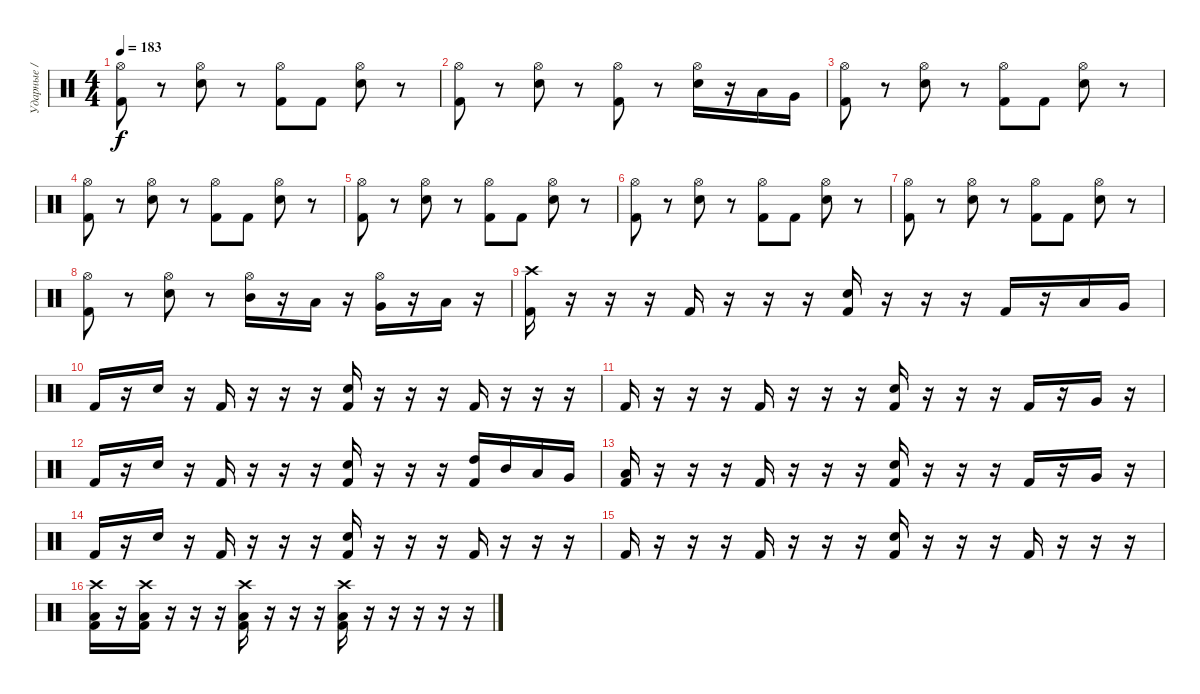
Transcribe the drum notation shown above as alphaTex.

\track ("Ударные / Drums" "Ударные / ") {instrument percussion}
\staff {score}
\articulation defaults
\ts (4 4)
\tempo 183
\clef neutral
\ks c
("Hi-Hat (open)" "Kick (hit) 2").8{dy f} r.8 ("Hi-Hat (open)" "Snare (hit) 2").8 r.8 ("Hi-Hat (open)" "Kick (hit) 2").8 "Kick (hit) 2".8 ("Hi-Hat (open)" "Snare (hit) 2").8 r.8 |
("Hi-Hat (open)" "Kick (hit) 2").8 r.8 ("Hi-Hat (open)" "Snare (hit) 2").8 r.8 ("Hi-Hat (open)" "Kick (hit) 2").8 r.8 ("Hi-Hat (open)" "Snare (hit) 2").16 r.16 "Low Tom (hit)".16 "Very Low Tom (hit)".16 |
("Hi-Hat (open)" "Kick (hit) 2").8 r.8 ("Hi-Hat (open)" "Snare (hit) 2").8 r.8 ("Hi-Hat (open)" "Kick (hit) 2").8 "Kick (hit) 2".8 ("Hi-Hat (open)" "Snare (hit) 2").8 r.8 |
("Hi-Hat (open)" "Kick (hit) 2").8 r.8 ("Hi-Hat (open)" "Snare (hit) 2").8 r.8 ("Hi-Hat (open)" "Kick (hit) 2").8 "Kick (hit) 2".8 ("Hi-Hat (open)" "Snare (hit) 2").8 r.8 |
("Hi-Hat (open)" "Kick (hit) 2").8 r.8 ("Hi-Hat (open)" "Snare (hit) 2").8 r.8 ("Hi-Hat (open)" "Kick (hit) 2").8 "Kick (hit) 2".8 ("Hi-Hat (open)" "Snare (hit) 2").8 r.8 |
("Hi-Hat (open)" "Kick (hit) 2").8 r.8 ("Hi-Hat (open)" "Snare (hit) 2").8 r.8 ("Hi-Hat (open)" "Kick (hit) 2").8 "Kick (hit) 2".8 ("Hi-Hat (open)" "Snare (hit) 2").8 r.8 |
("Hi-Hat (open)" "Kick (hit) 2").8 r.8 ("Hi-Hat (open)" "Snare (hit) 2").8 r.8 ("Hi-Hat (open)" "Kick (hit) 2").8 "Kick (hit) 2".8 ("Hi-Hat (open)" "Snare (hit) 2").8 r.8 |
("Hi-Hat (open)" "Kick (hit) 2").8 r.8 ("Hi-Hat (open)" "Snare (hit) 2").8 r.8 ("Hi-Hat (open)" "Mid Tom (hit)").16 r.16 "Low Tom (hit)".16 r.16 ("Hi-Hat (open)" "Very Low Tom (hit)").16 r.16 "Low Floor Tom (hit)".16 r.16 |
("Crash high (hit)" "Kick (hit) 2").16 r.16 r.16 r.16 "Kick (hit) 2".16 r.16 r.16 r.16 ("Snare (hit) 2" "Kick (hit) 2").16 r.16 r.16 r.16 "Kick (hit) 2".16 r.16 "Low Tom (hit)".16 "Very Low Tom (hit)".16 |
"Kick (hit) 2".16 r.16 "Snare (hit) 2".16 r.16 "Kick (hit) 2".16 r.16 r.16 r.16 ("Snare (hit) 2" "Kick (hit) 2").16 r.16 r.16 r.16 "Kick (hit) 2".16 r.16 r.16 r.16 |
"Kick (hit) 2".16 r.16 r.16 r.16 "Kick (hit) 2".16 r.16 r.16 r.16 ("Snare (hit) 2" "Kick (hit) 2").16 r.16 r.16 r.16 "Kick (hit) 2".16 r.16 "Very Low Tom (hit)".16 r.16 |
"Kick (hit) 2".16 r.16 "Snare (hit) 2".16 r.16 "Kick (hit) 2".16 r.16 r.16 r.16 ("Snare (hit) 2" "Kick (hit) 2").16 r.16 r.16 r.16 ("High Tom (hit)" "Kick (hit) 2").16 "Mid Tom (hit)".16 "Low Tom (hit)".16 "Very Low Tom (hit)".16 |
("Low Floor Tom (hit)" "Kick (hit) 2").16 r.16 r.16 r.16 "Kick (hit) 2".16 r.16 r.16 r.16 ("Snare (hit) 2" "Kick (hit) 2").16 r.16 r.16 r.16 "Kick (hit) 2".16 r.16 "Very Low Tom (hit)".16 r.16 |
"Kick (hit) 2".16 r.16 "Snare (hit) 2".16 r.16 "Kick (hit) 2".16 r.16 r.16 r.16 ("Snare (hit) 2" "Kick (hit) 2").16 r.16 r.16 r.16 "Kick (hit) 2".16 r.16 r.16 r.16 |
"Kick (hit) 2".16 r.16 r.16 r.16 "Kick (hit) 2".16 r.16 r.16 r.16 ("Snare (hit) 2" "Kick (hit) 2").16 r.16 r.16 r.16 "Kick (hit) 2".16 r.16 r.16 r.16 |
("Crash high (hit)" "Low Tom (hit)" "Kick (hit) 2").16 r.16 ("Crash high (hit)" "Low Tom (hit)" "Kick (hit) 2").16 r.16 r.16 r.16 ("Crash high (hit)" "Low Tom (hit)" "Kick (hit) 2").16 r.16 r.16 r.16 ("Crash high (hit)" "Low Tom (hit)" "Kick (hit) 2").16 r.16 r.16 r.16 r.16 r.16
